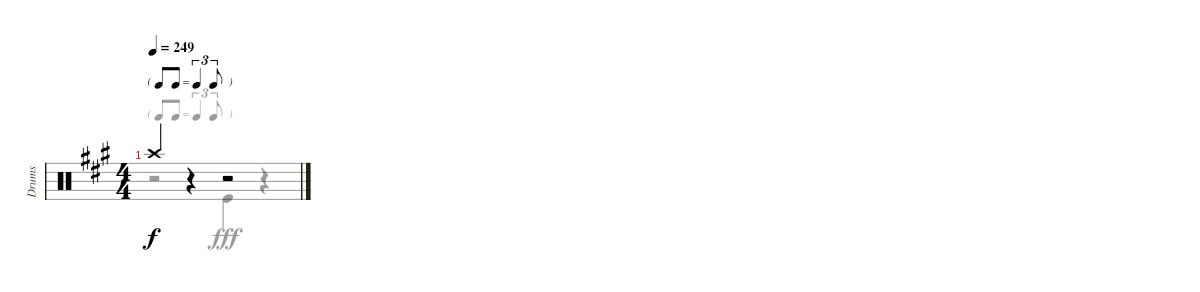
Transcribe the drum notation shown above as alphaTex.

\track ("Drums" "Drums") {instrument percussion}
\staff {score}
\articulation defaults
\voice
\ts (4 4)
\tf triplet8th
\tempo 249
\clef neutral
\ks a "Crash high (hit)".4{dy f}
r.4 r.2
\voice
\clef neutral
\ottava regular
\simile none
\ks a
r.2{dy fff} "Kick (hit)".4 r.4
